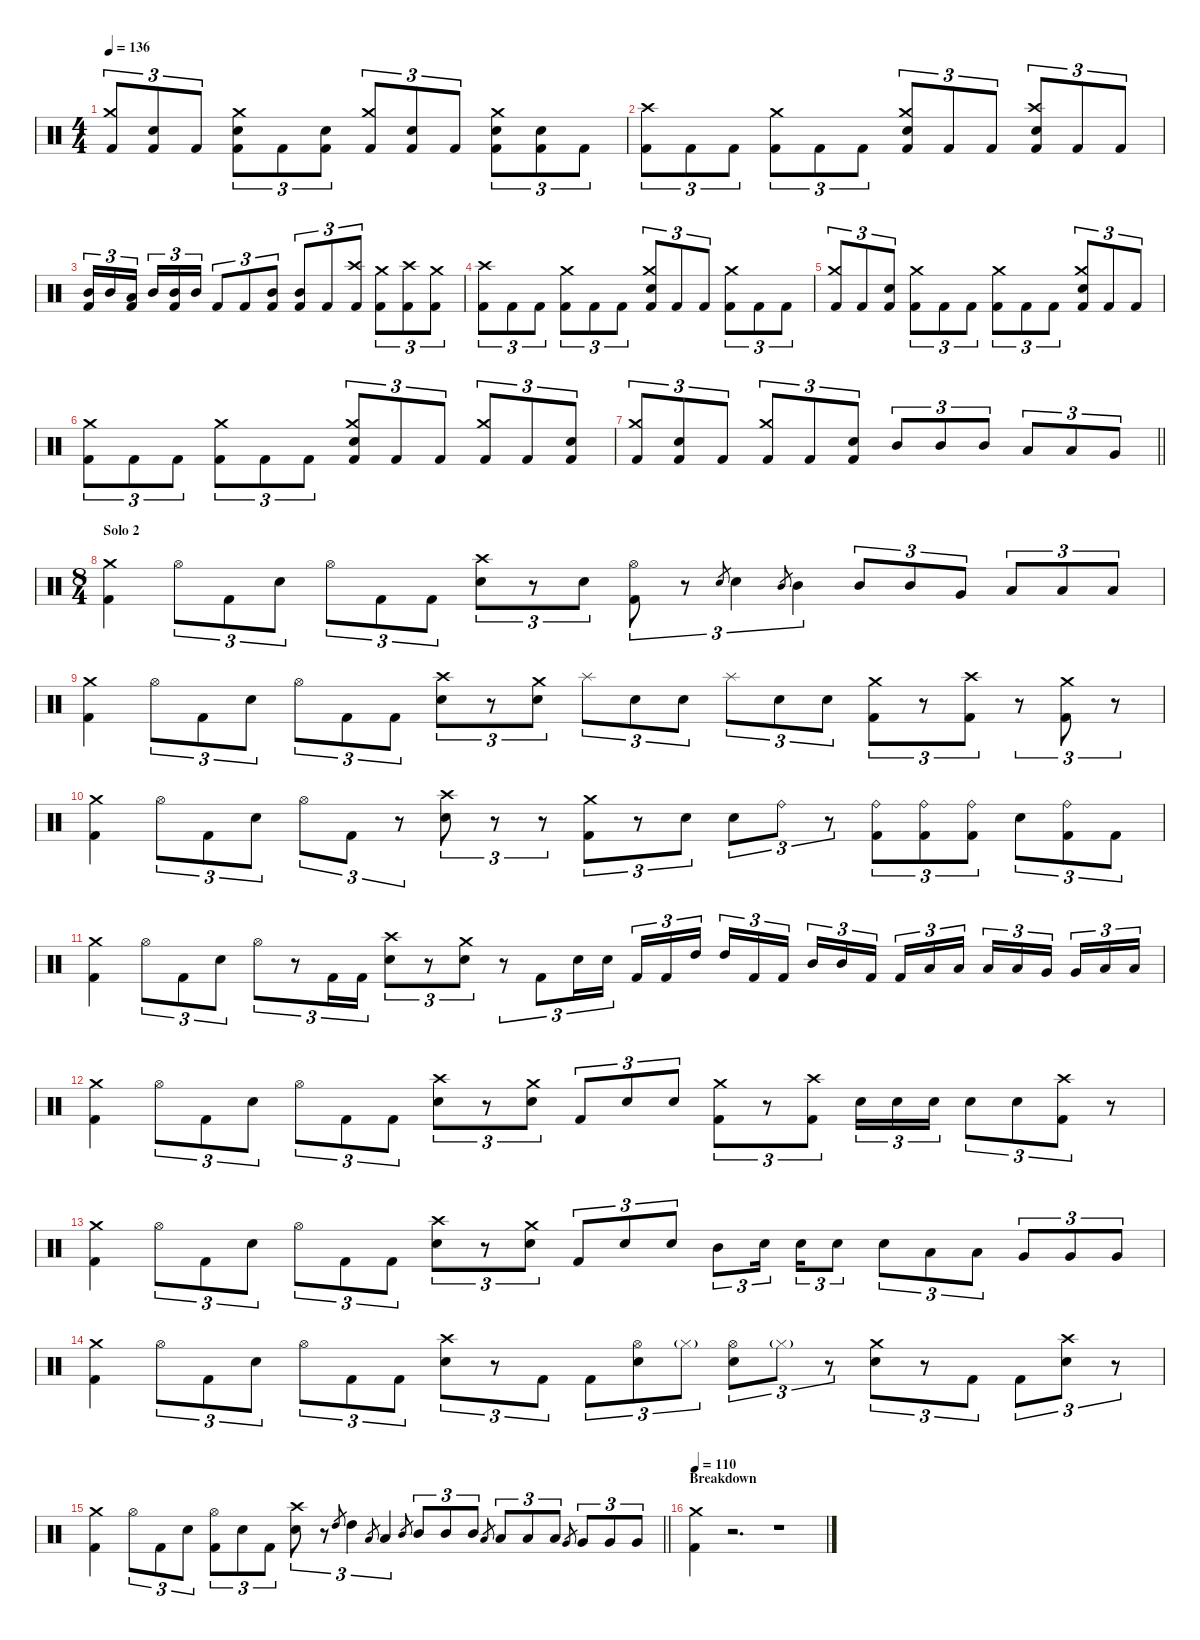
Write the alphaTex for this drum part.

\defaultSystemsLayout 4
\hideDynamics
\bracketExtendMode nobrackets
\singleTrackTrackNamePolicy hidden
\multiTrackTrackNamePolicy hidden
\firstSystemTrackNameMode fullname
\firstSystemTrackNameOrientation horizontal
\otherSystemsTrackNameOrientation horizontal
\track ("Drums" "drm.") {instrument percussion}
\staff {score}
\articulation defaults
\ts (4 4)
\tempo 136
\clef neutral
\ks c
("Crash medium (hit)" "Kick (hit) 2").8{tu (3 2) dy f beam Up} ("Snare (hit) 2" "Kick (hit) 2").8{tu (3 2) beam Up} "Kick (hit) 2".8{tu (3 2) beam Up} ("Crash medium (hit)" "Snare (hit) 2" "Kick (hit) 2").8{tu (3 2) beam Down} "Kick (hit) 2".8{tu (3 2) beam Down} ("Snare (hit) 2" "Kick (hit) 2").8{tu (3 2) beam Down} ("Crash medium (hit)" "Kick (hit) 2").8{tu (3 2) beam Up} ("Snare (hit) 2" "Kick (hit) 2").8{tu (3 2) beam Up} "Kick (hit) 2".8{tu (3 2) beam Up} ("Crash medium (hit)" "Snare (hit) 2" "Kick (hit) 2").8{tu (3 2) beam Down} ("Snare (hit) 2" "Kick (hit) 2").8{tu (3 2) beam Down} "Kick (hit) 2".8{tu (3 2) beam Down} |
("Crash high (hit)" "Kick (hit) 2").8{tu (3 2) beam Down} "Kick (hit) 2".8{tu (3 2) beam Down} "Kick (hit) 2".8{tu (3 2) beam Down} ("Crash medium (hit)" "Kick (hit) 2").8{tu (3 2) beam Down} "Kick (hit) 2".8{tu (3 2) beam Down} "Kick (hit) 2".8{tu (3 2) beam Down} ("Crash medium (hit)" "Snare (hit) 2" "Kick (hit) 2").8{tu (3 2) beam Up} "Kick (hit) 2".8{tu (3 2) beam Up} "Kick (hit) 2".8{tu (3 2) beam Up} ("Crash high (hit)" "Snare (hit) 2" "Kick (hit) 2").8{tu (3 2) beam Up} "Kick (hit) 2".8{tu (3 2) beam Up} "Kick (hit) 2".8{tu (3 2) beam Up} |
("Mid Tom (hit)" "Kick (hit) 2").16{tu (3 2) beam Up} "Mid Tom (hit)".16{tu (3 2) beam Up} ("Low Tom (hit)" "Kick (hit) 2").16{tu (3 2) beam Up} "Mid Tom (hit)".16{tu (3 2) beam Up} ("Mid Tom (hit)" "Kick (hit) 2").16{tu (3 2) beam Up} "Mid Tom (hit)".16{tu (3 2) beam Up} "Kick (hit) 2".8{tu (3 2) beam Up} "Kick (hit) 2".8{tu (3 2) beam Up} ("Mid Tom (hit)" "Kick (hit) 2").8{tu (3 2) beam Up} ("Mid Tom (hit)" "Kick (hit) 2").8{tu (3 2) beam Up} "Kick (hit) 2".8{tu (3 2) beam Up} ("Crash high (hit)" "Kick (hit) 2").8{tu (3 2) beam Up} ("Crash medium (hit)" "Kick (hit) 2").8{tu (3 2) beam Down} ("Crash high (hit)" "Kick (hit) 2").8{tu (3 2) beam Down} ("Crash medium (hit)" "Kick (hit) 2").8{tu (3 2) beam Down} |
("Crash high (hit)" "Kick (hit) 2").8{tu (3 2) beam Down} "Kick (hit) 2".8{tu (3 2) beam Down} "Kick (hit) 2".8{tu (3 2) beam Down} ("Crash medium (hit)" "Kick (hit) 2").8{tu (3 2) beam Down} "Kick (hit) 2".8{tu (3 2) beam Down} "Kick (hit) 2".8{tu (3 2) beam Down} ("Crash medium (hit)" "Snare (hit) 2" "Kick (hit) 2").8{tu (3 2) beam Up} "Kick (hit) 2".8{tu (3 2) beam Up} "Kick (hit) 2".8{tu (3 2) beam Up} ("Crash medium (hit)" "Kick (hit) 2").8{tu (3 2) beam Down} "Kick (hit) 2".8{tu (3 2) beam Down} "Kick (hit) 2".8{tu (3 2) beam Down} |
("Crash medium (hit)" "Kick (hit) 2").8{tu (3 2) beam Up} "Kick (hit) 2".8{tu (3 2) beam Up} ("Snare (hit) 2" "Kick (hit) 2").8{tu (3 2) beam Up} ("Crash medium (hit)" "Kick (hit) 2").8{tu (3 2) beam Down} "Kick (hit) 2".8{tu (3 2) beam Down} "Kick (hit) 2".8{tu (3 2) beam Down} ("Crash medium (hit)" "Kick (hit) 2").8{tu (3 2) beam Down} "Kick (hit) 2".8{tu (3 2) beam Down} "Kick (hit) 2".8{tu (3 2) beam Down} ("Crash medium (hit)" "Snare (hit) 2" "Kick (hit) 2").8{tu (3 2) beam Up} "Kick (hit) 2".8{tu (3 2) beam Up} "Kick (hit) 2".8{tu (3 2) beam Up} |
("Crash medium (hit)" "Kick (hit) 2").8{tu (3 2) beam Down} "Kick (hit) 2".8{tu (3 2) beam Down} "Kick (hit) 2".8{tu (3 2) beam Down} ("Crash medium (hit)" "Kick (hit) 2").8{tu (3 2) beam Down} "Kick (hit) 2".8{tu (3 2) beam Down} "Kick (hit) 2".8{tu (3 2) beam Down} ("Crash medium (hit)" "Snare (hit) 2" "Kick (hit) 2").8{tu (3 2) beam Up} "Kick (hit) 2".8{tu (3 2) beam Up} "Kick (hit) 2".8{tu (3 2) beam Up} ("Crash medium (hit)" "Kick (hit) 2").8{tu (3 2) beam Up} "Kick (hit) 2".8{tu (3 2) beam Up} ("Snare (hit) 2" "Kick (hit) 2").8{tu (3 2) beam Up} |
\barLineRight lightlight
("Crash medium (hit)" "Kick (hit) 2").8{tu (3 2) beam Up} ("Snare (hit) 2" "Kick (hit) 2").8{tu (3 2) beam Up} "Kick (hit) 2".8{tu (3 2) beam Up} ("Crash medium (hit)" "Kick (hit) 2").8{tu (3 2) beam Up} "Kick (hit) 2".8{tu (3 2) beam Up} ("Snare (hit) 2" "Kick (hit) 2").8{tu (3 2) beam Up} "Mid Tom (hit)".8{tu (3 2) beam Up} "Mid Tom (hit)".8{tu (3 2) beam Up} "Mid Tom (hit)".8{tu (3 2) beam Up} "Low Tom (hit)".8{tu (3 2) beam Up} "Low Tom (hit)".8{tu (3 2) beam Up} "Very Low Tom (hit)".8{tu (3 2) beam Up} |
\ts (8 4)
\beaming (8 4 4 4 4)
\section ("" "Solo 2")
("Crash medium (hit)" "Kick (hit) 2").4{beam Down} "Hi-Hat (open)".8{tu (3 2) beam Down} "Kick (hit) 2".8{tu (3 2) beam Down} "Snare (hit) 2".8{tu (3 2) beam Down} "Hi-Hat (open)".8{tu (3 2) beam Down} "Kick (hit) 2".8{tu (3 2) beam Down} "Kick (hit) 2".8{tu (3 2) beam Down} ("Crash high (hit)" "Snare (hit) 2").8{tu (3 2) beam Down} r.8{tu (3 2) beam Down} "Snare (hit) 2".8{tu (3 2) beam Down} ("Hi-Hat (open)" "Kick (hit) 2").8{tu (3 2) beam Down} r.8{tu (3 2) beam Down} "Electric Snare (hit)".8{gr dy mf beam Up} "Snare (hit) 2".4{tu (3 2) dy f beam Down} "Mid Tom (hit)".8{gr dy mf beam Up} "Mid Tom (hit)".4{tu (3 2) dy f beam Down} "Mid Tom (hit)".8{tu (3 2) beam Up} "Mid Tom (hit)".8{tu (3 2) beam Up} "Very Low Tom (hit)".8{tu (3 2) beam Up} "Low Tom (hit)".8{tu (3 2) beam Up} "Low Tom (hit)".8{tu (3 2) beam Up} "Low Tom (hit)".8{tu (3 2) beam Up} |
("Crash medium (hit)" "Kick (hit) 2").4{beam Down} "Hi-Hat (open)".8{tu (3 2) beam Down} "Kick (hit) 2".8{tu (3 2) beam Down} "Snare (hit) 2".8{tu (3 2) beam Down} "Hi-Hat (open)".8{tu (3 2) beam Down} "Kick (hit) 2".8{tu (3 2) beam Down} "Kick (hit) 2".8{tu (3 2) beam Down} ("Crash high (hit)" "Snare (hit) 2").8{tu (3 2) beam Down} r.8{tu (3 2) beam Down} ("Crash medium (hit)" "Snare (hit) 2").8{tu (3 2) beam Down} "Splash (hit)".8{tu (3 2) beam Down} "Snare (hit) 2".8{tu (3 2) beam Down} "Snare (hit) 2".8{tu (3 2) beam Down} "Splash (hit)".8{tu (3 2) beam Down} "Snare (hit) 2".8{tu (3 2) beam Down} "Snare (hit) 2".8{tu (3 2) beam Down} ("Crash medium (hit)" "Kick (hit) 2").8{tu (3 2) beam Down} r.8{tu (3 2) beam Down} ("Crash high (hit)" "Kick (hit) 2").8{tu (3 2) beam Down} r.8{tu (3 2) beam Down} ("Crash medium (hit)" "Kick (hit) 2").8{tu (3 2) beam Down} r.8{tu (3 2) beam Down} |
("Crash medium (hit)" "Kick (hit) 2").4{beam Down} "Hi-Hat (open)".8{tu (3 2) beam Down} "Kick (hit) 2".8{tu (3 2) beam Down} "Snare (hit) 2".8{tu (3 2) beam Down} "Hi-Hat (open)".8{tu (3 2) beam Down} "Kick (hit) 2".8{tu (3 2) beam Down} r.8{tu (3 2) beam Down} ("Crash high (hit)" "Snare (hit) 2").8{tu (3 2) beam Down} r.8{tu (3 2) beam Down} r.8{tu (3 2) beam Down} ("Crash medium (hit)" "Kick (hit) 2").8{tu (3 2) beam Down} r.8{tu (3 2) beam Down} "Snare (hit) 2".8{tu (3 2) beam Down} "Snare (hit) 2".8{tu (3 2) beam Down} "Ride (bell)".8{tu (3 2) beam Down} r.8{tu (3 2) beam Down} ("Ride (bell)" "Kick (hit) 2").8{tu (3 2) beam Down} ("Ride (bell)" "Kick (hit) 2").8{tu (3 2) beam Down} ("Ride (bell)" "Kick (hit) 2").8{tu (3 2) dy mf beam Down} "Snare (hit) 2".8{tu (3 2) dy f beam Down} ("Ride (bell)" "Kick (hit) 2").8{tu (3 2) beam Down} "Kick (hit) 2".8{tu (3 2) beam Down} |
("Crash medium (hit)" "Kick (hit) 2").4{beam Down} "Hi-Hat (open)".8{tu (3 2) beam Down} "Kick (hit) 2".8{tu (3 2) beam Down} "Snare (hit) 2".8{tu (3 2) beam Down} "Hi-Hat (open)".8{tu (3 2) beam Down} r.8{tu (3 2) beam Down} "Kick (hit) 2".16{tu (3 2) beam Down} "Kick (hit) 2".16{tu (3 2) beam Down} ("Crash high (hit)" "Snare (hit) 2").8{tu (3 2) beam Down} r.8{tu (3 2) beam Down} ("Crash medium (hit)" "Snare (hit) 2").8{tu (3 2) beam Down} r.8{tu (3 2) beam Down} "Kick (hit) 2".8{tu (3 2) beam Up} "Snare (hit) 2".16{tu (3 2) beam Up} "Snare (hit) 2".16{tu (3 2) beam Up} "Kick (hit) 2".16{tu (3 2) beam Up} "Kick (hit) 2".16{tu (3 2) beam Up} "High Tom (hit)".16{tu (3 2) beam Up} "High Tom (hit)".16{tu (3 2) beam Up} "Kick (hit) 2".16{tu (3 2) beam Up} "Kick (hit) 2".16{tu (3 2) beam Up} "Mid Tom (hit)".16{tu (3 2) beam Up} "Mid Tom (hit)".16{tu (3 2) beam Up} "Kick (hit) 2".16{tu (3 2) beam Up} "Kick (hit) 2".16{tu (3 2) beam Up} "Low Tom (hit)".16{tu (3 2) beam Up} "Low Tom (hit)".16{tu (3 2) beam Up} "Low Tom (hit)".16{tu (3 2) beam Up} "Low Tom (hit)".16{tu (3 2) beam Up} "Very Low Tom (hit)".16{tu (3 2) beam Up} "Very Low Tom (hit)".16{tu (3 2) beam Up} "Low Floor Tom (hit)".16{tu (3 2) beam Up} "Low Floor Tom (hit)".16{tu (3 2) beam Up} |
("Crash medium (hit)" "Kick (hit) 2").4{beam Down} "Hi-Hat (open)".8{tu (3 2) beam Down} "Kick (hit) 2".8{tu (3 2) beam Down} "Snare (hit) 2".8{tu (3 2) beam Down} "Hi-Hat (open)".8{tu (3 2) beam Down} "Kick (hit) 2".8{tu (3 2) beam Down} "Kick (hit) 2".8{tu (3 2) beam Down} ("Crash high (hit)" "Snare (hit) 2").8{tu (3 2) beam Down} r.8{tu (3 2) beam Down} ("Crash medium (hit)" "Snare (hit) 2").8{tu (3 2) beam Down} "Kick (hit) 2".8{tu (3 2) beam Up} "Snare (hit) 2".8{tu (3 2) beam Up} "Snare (hit) 2".8{tu (3 2) beam Up} ("Crash medium (hit)" "Kick (hit) 2").8{tu (3 2) beam Down} r.8{tu (3 2) beam Down} ("Crash high (hit)" "Kick (hit) 2").8{tu (3 2) beam Down} "Snare (hit) 2".16{tu (3 2) dy p beam Down} "Snare (hit) 2".16{tu (3 2) dy mp beam Down} "Snare (hit) 2".16{tu (3 2) dy mf beam Down} "Snare (hit) 2".8{tu (3 2) dy f beam Down} "Snare (hit) 2".8{tu (3 2) beam Down} ("Crash high (hit)" "Kick (hit) 2").8{tu (3 2) beam Down} r.8{beam Down} |
("Crash medium (hit)" "Kick (hit) 2").4{beam Down} "Hi-Hat (open)".8{tu (3 2) beam Down} "Kick (hit) 2".8{tu (3 2) beam Down} "Snare (hit) 2".8{tu (3 2) beam Down} "Hi-Hat (open)".8{tu (3 2) beam Down} "Kick (hit) 2".8{tu (3 2) beam Down} "Kick (hit) 2".8{tu (3 2) beam Down} ("Crash high (hit)" "Snare (hit) 2").8{tu (3 2) beam Down} r.8{tu (3 2) beam Down} ("Crash medium (hit)" "Snare (hit) 2").8{tu (3 2) beam Down} "Kick (hit) 2".8{tu (3 2) beam Up} "Snare (hit) 2".8{tu (3 2) dy mf beam Up} "Snare (hit) 2".8{tu (3 2) dy f beam Up} "Mid Tom (hit)".8{tu (3 2) beam Down} "Snare (hit) 2".16{tu (3 2) dy mp beam Down} "Snare (hit) 2".16{tu (3 2) dy mf beam Down} "Snare (hit) 2".8{tu (3 2) dy f beam Down} "Snare (hit) 2".8{tu (3 2) beam Down} "Low Tom (hit)".8{tu (3 2) beam Down} "Low Tom (hit)".8{tu (3 2) beam Down} "Very Low Tom (hit)".8{tu (3 2) beam Up} "Very Low Tom (hit)".8{tu (3 2) beam Up} "Very Low Tom (hit)".8{tu (3 2) beam Up} |
("Crash medium (hit)" "Kick (hit) 2").4{beam Down} "Hi-Hat (open)".8{tu (3 2) beam Down} "Kick (hit) 2".8{tu (3 2) beam Down} "Snare (hit) 2".8{tu (3 2) beam Down} "Hi-Hat (open)".8{tu (3 2) beam Down} "Kick (hit) 2".8{tu (3 2) beam Down} "Kick (hit) 2".8{tu (3 2) beam Down} ("Crash high (hit)" "Snare (hit) 2").8{tu (3 2) beam Down} r.8{tu (3 2) beam Down} "Kick (hit) 2".8{tu (3 2) beam Down} "Kick (hit) 2".8{tu (3 2) beam Down} ("Hi-Hat (open)" "Snare (hit) 2").8{tu (3 2) beam Down} "Hi-Hat (closed)"{g}.8{tu (3 2) dy pp beam Down} ("Hi-Hat (open)" "Snare (hit) 2").8{tu (3 2) dy f beam Down} "Hi-Hat (closed)"{g}.8{tu (3 2) dy pp beam Down} r.8{tu (3 2) beam Down} ("Crash medium (hit)" "Snare (hit) 2").8{tu (3 2) dy f beam Down} r.8{tu (3 2) beam Down} "Kick (hit) 2".8{tu (3 2) beam Down} "Kick (hit) 2".8{tu (3 2) beam Down} ("Crash high (hit)" "Snare (hit) 2").8{tu (3 2) beam Down} r.8{tu (3 2) beam Down} |
\barLineRight lightlight
("Crash medium (hit)" "Kick (hit) 2").4{beam Down} "Hi-Hat (open)".8{tu (3 2) beam Down} "Kick (hit) 2".8{tu (3 2) beam Down} "Snare (hit) 2".8{tu (3 2) beam Down} ("Hi-Hat (open)" "Kick (hit) 2").8{tu (3 2) beam Down} "Snare (hit) 2".8{tu (3 2) beam Down} "Kick (hit) 2".8{tu (3 2) beam Down} ("Crash high (hit)" "Snare (hit) 2").8{tu (3 2) beam Down} r.8{tu (3 2) beam Down} "High Tom (hit)".8{gr dy mf beam Up} "High Tom (hit)".4{tu (3 2) dy f beam Down} "Low Tom (hit)".8{gr dy mf beam Up} "Low Tom (hit)".4{tu (3 2) dy f beam Up} "Mid Tom (hit)".8{gr dy mf beam Up} "Mid Tom (hit)".8{tu (3 2) dy f beam Up} "Mid Tom (hit)".8{tu (3 2) beam Up} "Mid Tom (hit)".8{tu (3 2) beam Up} "Low Tom (hit)".8{gr dy mf beam Up} "Low Tom (hit)".8{tu (3 2) dy f beam Up} "Low Tom (hit)".8{tu (3 2) beam Up} "Low Tom (hit)".8{tu (3 2) beam Up} "Very Low Tom (hit)".8{gr dy mf beam Up} "Very Low Tom (hit)".8{tu (3 2) dy f beam Up} "Very Low Tom (hit)".8{tu (3 2) beam Up} "Very Low Tom (hit)".8{tu (3 2) beam Up} |
\section ("" "Breakdown")
\tempo 110
("Crash medium (hit)" "Kick (hit) 2").4{beam Down} r.2{d beam Down} r.1{beam Down}
